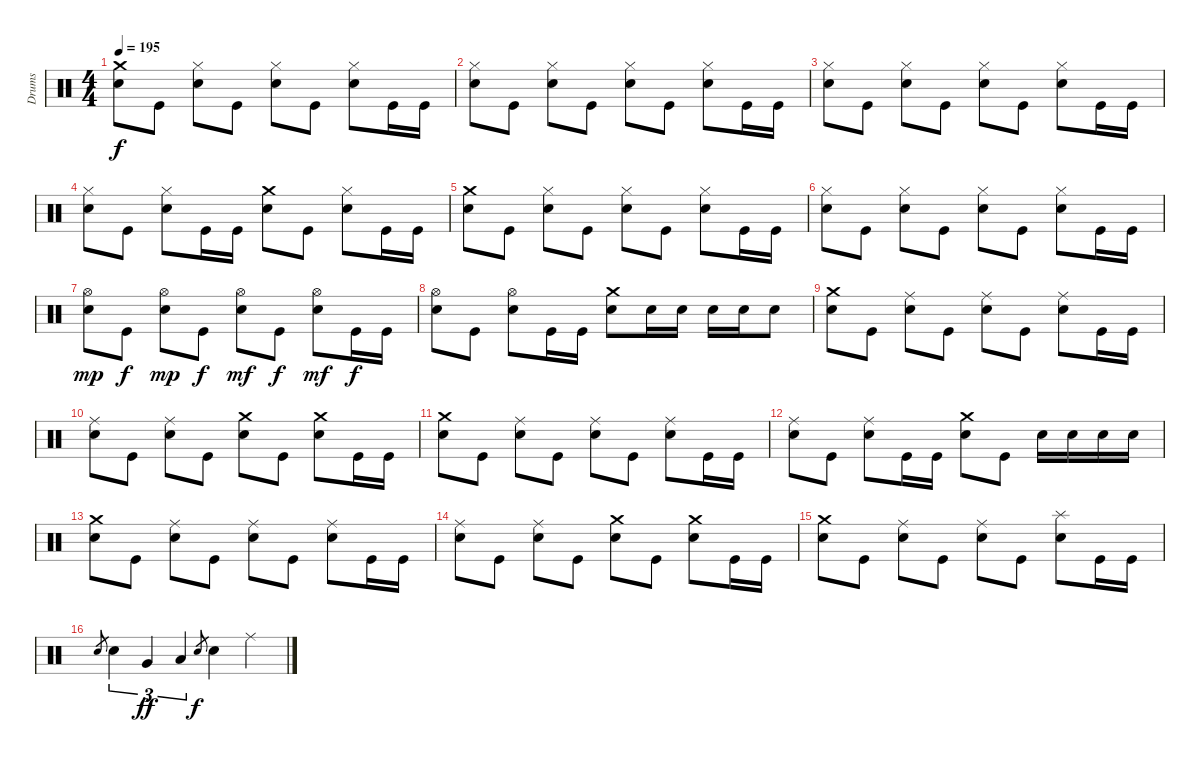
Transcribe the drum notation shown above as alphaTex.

\track ("Drums" "Drums") {instrument percussion}
\staff {score}
\articulation defaults
\ts (4 4)
\tempo 195
\clef neutral
\ks c
("Crash medium (hit)" "Electric Snare (hit)").8{dy f} "Kick (hit)".8 ("Hi-Hat (closed)" "Electric Snare (hit)").8 "Kick (hit)".8 ("Hi-Hat (closed)" "Electric Snare (hit)").8 "Kick (hit)".8 ("Hi-Hat (closed)" "Electric Snare (hit)").8 "Kick (hit)".16 "Kick (hit)".16 |
("Hi-Hat (closed)" "Electric Snare (hit)").8 "Kick (hit)".8 ("Hi-Hat (closed)" "Electric Snare (hit)").8 "Kick (hit)".8 ("Hi-Hat (closed)" "Electric Snare (hit)").8 "Kick (hit)".8 ("Hi-Hat (closed)" "Electric Snare (hit)").8 "Kick (hit)".16 "Kick (hit)".16 |
("Hi-Hat (closed)" "Electric Snare (hit)").8 "Kick (hit)".8 ("Hi-Hat (closed)" "Electric Snare (hit)").8 "Kick (hit)".8 ("Hi-Hat (closed)" "Electric Snare (hit)").8 "Kick (hit)".8 ("Hi-Hat (closed)" "Electric Snare (hit)").8 "Kick (hit)".16 "Kick (hit)".16 |
("Hi-Hat (closed)" "Electric Snare (hit)").8 "Kick (hit)".8 ("Hi-Hat (closed)" "Electric Snare (hit)").8 "Kick (hit)".16 "Kick (hit)".16 ("Crash medium (hit)" "Electric Snare (hit)").8 "Kick (hit)".8 ("Hi-Hat (closed)" "Electric Snare (hit)").8 "Kick (hit)".16 "Kick (hit)".16 |
("Crash medium (hit)" "Electric Snare (hit)").8 "Kick (hit)".8 ("Hi-Hat (closed)" "Electric Snare (hit)").8 "Kick (hit)".8 ("Hi-Hat (closed)" "Electric Snare (hit)").8 "Kick (hit)".8 ("Hi-Hat (closed)" "Electric Snare (hit)").8 "Kick (hit)".16 "Kick (hit)".16 |
("Hi-Hat (closed)" "Electric Snare (hit)").8 "Kick (hit)".8 ("Hi-Hat (closed)" "Electric Snare (hit)").8 "Kick (hit)".8 ("Hi-Hat (closed)" "Electric Snare (hit)").8 "Kick (hit)".8 ("Hi-Hat (closed)" "Electric Snare (hit)").8 "Kick (hit)".16 "Kick (hit)".16 |
("Hi-Hat (open)" "Electric Snare (hit)").8{dy mp} "Kick (hit)".8{dy f} ("Hi-Hat (open)" "Electric Snare (hit)").8{dy mp} "Kick (hit)".8{dy f} ("Hi-Hat (open)" "Electric Snare (hit)").8{dy mf} "Kick (hit)".8{dy f} ("Hi-Hat (open)" "Electric Snare (hit)").8{dy mf} "Kick (hit)".16{dy f} "Kick (hit)".16 |
("Hi-Hat (open)" "Electric Snare (hit)").8 "Kick (hit)".8 ("Hi-Hat (open)" "Electric Snare (hit)").8 "Kick (hit)".16 "Kick (hit)".16 ("Crash medium (hit)" "Electric Snare (hit)").8 "Electric Snare (hit)".16 "Electric Snare (hit)".16 "Electric Snare (hit)".16 "Electric Snare (hit)".16 "Electric Snare (hit)".8 |
("Crash medium (hit)" "Electric Snare (hit)").8 "Kick (hit)".8 ("Ride (middle)" "Electric Snare (hit)").8 "Kick (hit)".8 ("Ride (middle)" "Electric Snare (hit)").8 "Kick (hit)".8 ("Ride (middle)" "Electric Snare (hit)").8 "Kick (hit)".16 "Kick (hit)".16 |
("Ride (middle)" "Electric Snare (hit)").8 "Kick (hit)".8 ("Ride (middle)" "Electric Snare (hit)").8 "Kick (hit)".8 ("Crash medium (hit)" "Electric Snare (hit)").8 "Kick (hit)".8 ("Crash medium (hit)" "Electric Snare (hit)").8 "Kick (hit)".16 "Kick (hit)".16 |
("Crash medium (hit)" "Electric Snare (hit)").8 "Kick (hit)".8 ("Ride (middle)" "Electric Snare (hit)").8 "Kick (hit)".8 ("Ride (middle)" "Electric Snare (hit)").8 "Kick (hit)".8 ("Ride (middle)" "Electric Snare (hit)").8 "Kick (hit)".16 "Kick (hit)".16 |
("Ride (middle)" "Electric Snare (hit)").8 "Kick (hit)".8 ("Ride (middle)" "Electric Snare (hit)").8 "Kick (hit)".16 "Kick (hit)".16 ("Crash medium (hit)" "Electric Snare (hit)").8 "Kick (hit)".8 "Electric Snare (hit)".16 "Electric Snare (hit)".16 "Electric Snare (hit)".16 "Electric Snare (hit)".16 |
("Crash medium (hit)" "Electric Snare (hit)").8 "Kick (hit)".8 ("Ride (middle)" "Electric Snare (hit)").8 "Kick (hit)".8 ("Ride (middle)" "Electric Snare (hit)").8 "Kick (hit)".8 ("Ride (middle)" "Electric Snare (hit)").8 "Kick (hit)".16 "Kick (hit)".16 |
("Ride (middle)" "Electric Snare (hit)").8 "Kick (hit)".8 ("Ride (middle)" "Electric Snare (hit)").8 "Kick (hit)".8 ("Crash medium (hit)" "Electric Snare (hit)").8 "Kick (hit)".8 ("Crash medium (hit)" "Electric Snare (hit)").8 "Kick (hit)".16 "Kick (hit)".16 |
("Crash medium (hit)" "Electric Snare (hit)").8 "Kick (hit)".8 ("Ride (middle)" "Electric Snare (hit)").8 "Kick (hit)".8 ("Ride (middle)" "Electric Snare (hit)").8 "Kick (hit)".8 ("Splash (hit)" "Electric Snare (hit)").8 "Kick (hit)".16 "Kick (hit)".16 |
"Electric Snare (hit)".8{gr} "Electric Snare (hit)".4{tu (3 2)} "Very Low Tom (hit)".4{tu (3 2) dy ff} "Low Floor Tom (hit)".4{tu (3 2)} "Electric Snare (hit)".8{gr dy f} "Electric Snare (hit)".4 "Ride (middle)".4
